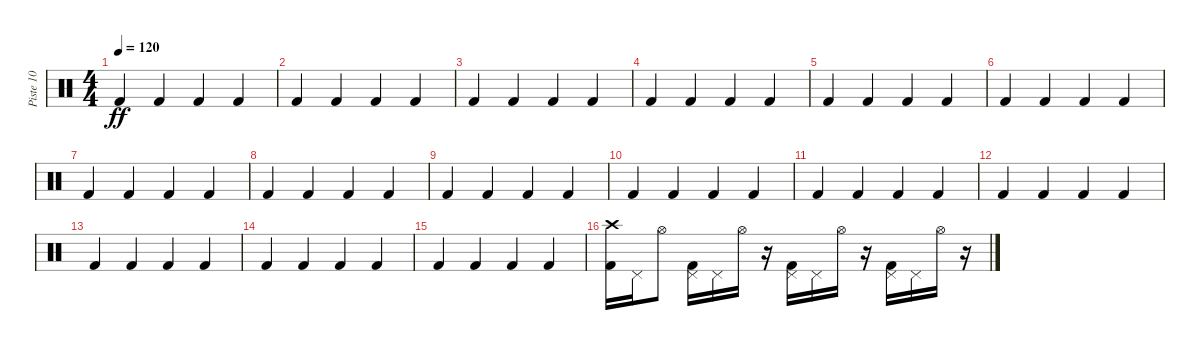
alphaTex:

\track ("Piste 10" "Piste 10") {instrument percussion}
\staff {score}
\articulation defaults
\ts (4 4)
\tempo 120
\clef neutral
\ks c "Kick (hit) 2".4{dy ff} "Kick (hit) 2".4 "Kick (hit) 2".4 "Kick (hit) 2".4
|
"Kick (hit) 2".4 "Kick (hit) 2".4 "Kick (hit) 2".4 "Kick (hit) 2".4 |
"Kick (hit) 2".4 "Kick (hit) 2".4 "Kick (hit) 2".4 "Kick (hit) 2".4 |
"Kick (hit) 2".4 "Kick (hit) 2".4 "Kick (hit) 2".4 "Kick (hit) 2".4 |
"Kick (hit) 2".4 "Kick (hit) 2".4 "Kick (hit) 2".4 "Kick (hit) 2".4 |
"Kick (hit) 2".4 "Kick (hit) 2".4 "Kick (hit) 2".4 "Kick (hit) 2".4 |
"Kick (hit) 2".4 "Kick (hit) 2".4 "Kick (hit) 2".4 "Kick (hit) 2".4 |
"Kick (hit) 2".4 "Kick (hit) 2".4 "Kick (hit) 2".4 "Kick (hit) 2".4 |
"Kick (hit) 2".4 "Kick (hit) 2".4 "Kick (hit) 2".4 "Kick (hit) 2".4 |
"Kick (hit) 2".4 "Kick (hit) 2".4 "Kick (hit) 2".4 "Kick (hit) 2".4 |
"Kick (hit) 2".4 "Kick (hit) 2".4 "Kick (hit) 2".4 "Kick (hit) 2".4 |
"Kick (hit) 2".4 "Kick (hit) 2".4 "Kick (hit) 2".4 "Kick (hit) 2".4 |
"Kick (hit) 2".4 "Kick (hit) 2".4 "Kick (hit) 2".4 "Kick (hit) 2".4 |
"Kick (hit) 2".4 "Kick (hit) 2".4 "Kick (hit) 2".4 "Kick (hit) 2".4 |
"Kick (hit) 2".4 "Kick (hit) 2".4 "Kick (hit) 2".4 "Kick (hit) 2".4 |
("Crash high (hit)" "Kick (hit) 2").16 "Pedal Hi-Hat (hit)".16 "Hi-Hat (open)".8 ("Kick (hit) 2" "Pedal Hi-Hat (hit)").16 "Pedal Hi-Hat (hit)".16 "Hi-Hat (open)".16 r.16 ("Kick (hit) 2" "Pedal Hi-Hat (hit)").16 "Pedal Hi-Hat (hit)".16 "Hi-Hat (open)".16 r.16 ("Kick (hit) 2" "Pedal Hi-Hat (hit)").16 "Pedal Hi-Hat (hit)".16 "Hi-Hat (open)".16 r.16
